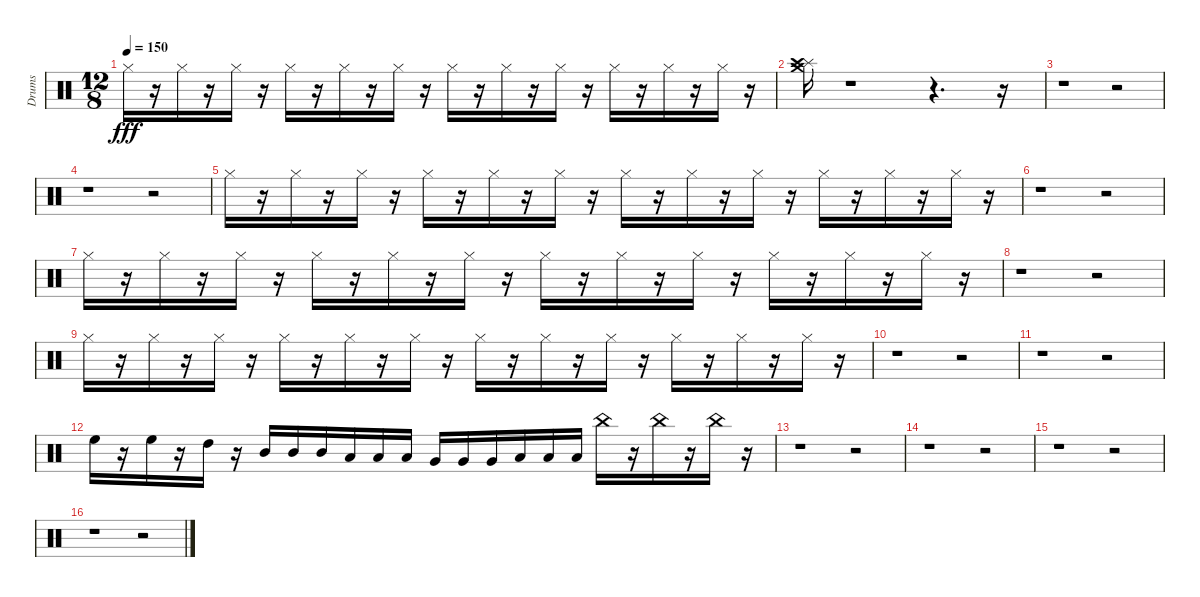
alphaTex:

\track ("Drums" "Drums") {instrument percussion}
\staff {score}
\articulation defaults
\ts (12 8)
\tempo 150
\clef neutral
\ks c "Hi-Hat (closed)".16{dy fff}
r.16 "Hi-Hat (closed)".16 r.16 "Hi-Hat (closed)".16 r.16 "Hi-Hat (closed)".16 r.16 "Hi-Hat (closed)".16 r.16 "Hi-Hat (closed)".16 r.16 "Hi-Hat (closed)".16 r.16 "Hi-Hat (closed)".16 r.16 "Hi-Hat (closed)".16 r.16 "Hi-Hat (closed)".16 r.16 "Hi-Hat (closed)".16 r.16 "Hi-Hat (closed)".16 r.16 |
("Splash (hit)" "Crash high (hit)" "Crash medium (hit)").16 r.1 r.4{d} r.16 |
r.1 r.2 |
r.1 r.2 |
"Hi-Hat (closed)".16 r.16 "Hi-Hat (closed)".16 r.16 "Hi-Hat (closed)".16 r.16 "Hi-Hat (closed)".16 r.16 "Hi-Hat (closed)".16 r.16 "Hi-Hat (closed)".16 r.16 "Hi-Hat (closed)".16 r.16 "Hi-Hat (closed)".16 r.16 "Hi-Hat (closed)".16 r.16 "Hi-Hat (closed)".16 r.16 "Hi-Hat (closed)".16 r.16 "Hi-Hat (closed)".16 r.16 |
r.1 r.2 |
"Hi-Hat (closed)".16 r.16 "Hi-Hat (closed)".16 r.16 "Hi-Hat (closed)".16 r.16 "Hi-Hat (closed)".16 r.16 "Hi-Hat (closed)".16 r.16 "Hi-Hat (closed)".16 r.16 "Hi-Hat (closed)".16 r.16 "Hi-Hat (closed)".16 r.16 "Hi-Hat (closed)".16 r.16 "Hi-Hat (closed)".16 r.16 "Hi-Hat (closed)".16 r.16 "Hi-Hat (closed)".16 r.16 |
r.1 r.2 |
"Hi-Hat (closed)".16 r.16 "Hi-Hat (closed)".16 r.16 "Hi-Hat (closed)".16 r.16 "Hi-Hat (closed)".16 r.16 "Hi-Hat (closed)".16 r.16 "Hi-Hat (closed)".16 r.16 "Hi-Hat (closed)".16 r.16 "Hi-Hat (closed)".16 r.16 "Hi-Hat (closed)".16 r.16 "Hi-Hat (closed)".16 r.16 "Hi-Hat (closed)".16 r.16 "Hi-Hat (closed)".16 r.16 |
r.1 r.2 |
r.1 r.2 |
"High Floor Tom (hit)".16 r.16 "High Floor Tom (hit)".16 r.16 "High Tom (hit)".16 r.16 "Mid Tom (hit)".16 "Mid Tom (hit)".16 "Mid Tom (hit)".16 "Low Tom (hit)".16 "Low Tom (hit)".16 "Low Tom (hit)".16 "Very Low Tom (hit)".16 "Very Low Tom (hit)".16 "Very Low Tom (hit)".16 "Low Floor Tom (hit)".16 "Low Floor Tom (hit)".16 "Low Floor Tom (hit)".16 "China (hit)".16 r.16 "China (hit)".16 r.16 "China (hit)".16 r.16 |
r.1 r.2 |
r.1 r.2 |
r.1 r.2 |
r.1 r.2
